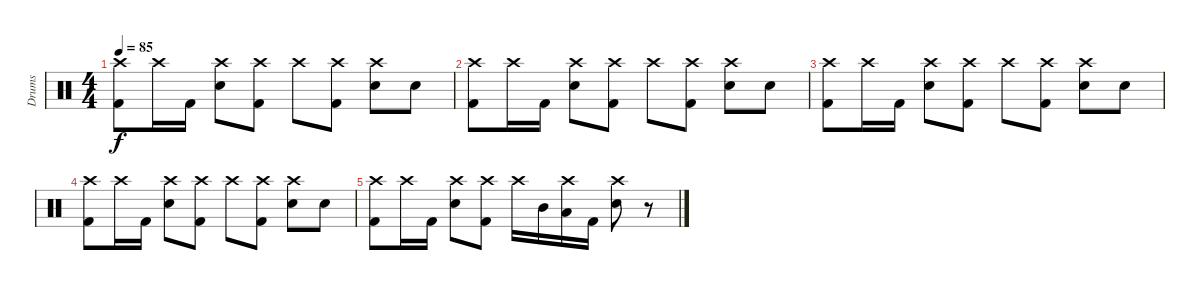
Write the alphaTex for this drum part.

\track ("Drums" "Drums") {instrument percussion}
\staff {score}
\articulation defaults
\ts (4 4)
\tempo 85
\clef neutral
\ks c
("Crash high (hit)" "Kick (hit) 2").8{dy f} "Crash high (hit)".16 "Kick (hit) 2".16 ("Crash high (hit)" "Electric Snare (hit)").8 ("Crash high (hit)" "Kick (hit) 2").8 "Crash high (hit)".8 ("Crash high (hit)" "Kick (hit) 2").8 ("Crash high (hit)" "Electric Snare (hit)").8 "Electric Snare (hit)".8 |
("Crash high (hit)" "Kick (hit) 2").8 "Crash high (hit)".16 "Kick (hit) 2".16 ("Crash high (hit)" "Electric Snare (hit)").8 ("Crash high (hit)" "Kick (hit) 2").8 "Crash high (hit)".8 ("Crash high (hit)" "Kick (hit) 2").8 ("Crash high (hit)" "Electric Snare (hit)").8 "Electric Snare (hit)".8 |
("Crash high (hit)" "Kick (hit) 2").8 "Crash high (hit)".16 "Kick (hit) 2".16 ("Crash high (hit)" "Electric Snare (hit)").8 ("Crash high (hit)" "Kick (hit) 2").8 "Crash high (hit)".8 ("Crash high (hit)" "Kick (hit) 2").8 ("Crash high (hit)" "Electric Snare (hit)").8 "Electric Snare (hit)".8 |
("Crash high (hit)" "Kick (hit) 2").8 "Crash high (hit)".16 "Kick (hit) 2".16 ("Crash high (hit)" "Electric Snare (hit)").8 ("Crash high (hit)" "Kick (hit) 2").8 "Crash high (hit)".8 ("Crash high (hit)" "Kick (hit) 2").8 ("Crash high (hit)" "Electric Snare (hit)").8 "Electric Snare (hit)".8 |
("Crash high (hit)" "Kick (hit) 2").8 "Crash high (hit)".16 "Kick (hit) 2".16 ("Crash high (hit)" "Electric Snare (hit)").8 ("Crash high (hit)" "Kick (hit) 2").8 "Crash high (hit)".16 "Mid Tom (hit)".16 ("Crash high (hit)" "Low Tom (hit)").16 "Kick (hit) 2".16 ("Crash high (hit)" "Electric Snare (hit)").8 r.8
